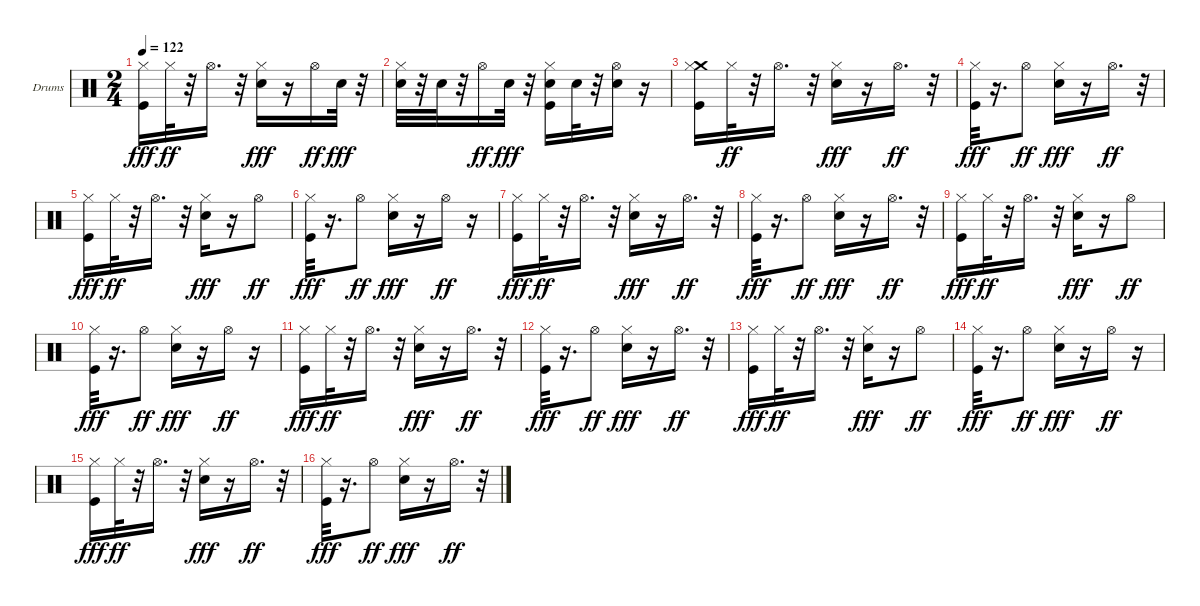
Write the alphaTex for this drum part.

\bracketExtendMode groupsimilarinstruments
\firstSystemTrackNameOrientation horizontal
\otherSystemsTrackNameOrientation horizontal
\track ("Ударные" "Drums") {instrument percussion}
\staff {score}
\articulation defaults
\ts (2 4)
\tempo 122
\clef neutral
\ks c
("Kick (hit)" "Hi-Hat (closed)").16{dy fff} "Hi-Hat (closed)".32{dy ff} r.32 "Hi-Hat (open)".16{d} r.32 ("Snare (hit) 2" "Hi-Hat (closed)").16{dy fff} r.16 "Hi-Hat (open)".16{dy ff} "Snare (hit) 2".32{dy fff} r.32 |
("Snare (hit) 2" "Hi-Hat (closed)").32 r.32 "Snare (hit) 2".32 r.32 "Hi-Hat (open)".16{dy ff} "Snare (hit) 2".32{dy fff} r.32 ("Kick (hit)" "Snare (hit) 2" "Hi-Hat (closed)").16 "Snare (hit) 2".32 r.32 ("Snare (hit) 2" "Hi-Hat (open)").16 r.16 |
("Kick (hit)" "Crash medium (hit)" "Hi-Hat (closed)").16 "Hi-Hat (closed)".32{dy ff} r.32 "Hi-Hat (open)".16{d} r.32 ("Snare (hit) 2" "Hi-Hat (closed)").16{dy fff} r.16 "Hi-Hat (open)".16{d dy ff} r.32 |
("Kick (hit)" "Hi-Hat (closed)").32{dy fff} r.16{d} "Hi-Hat (open)".8{dy ff} ("Snare (hit) 2" "Hi-Hat (closed)").16{dy fff} r.16 "Hi-Hat (open)".16{d dy ff} r.32 |
("Kick (hit)" "Hi-Hat (closed)").16{dy fff} "Hi-Hat (closed)".32{dy ff} r.32 "Hi-Hat (open)".16{d} r.32 ("Snare (hit) 2" "Hi-Hat (closed)").16{dy fff} r.16 "Hi-Hat (open)".8{dy ff} |
("Kick (hit)" "Hi-Hat (closed)").32{dy fff} r.16{d} "Hi-Hat (open)".8{dy ff} ("Snare (hit) 2" "Hi-Hat (closed)").16{dy fff} r.16 "Hi-Hat (open)".16{dy ff} r.16 |
("Kick (hit)" "Hi-Hat (closed)").16{dy fff} "Hi-Hat (closed)".32{dy ff} r.32 "Hi-Hat (open)".16{d} r.32 ("Snare (hit) 2" "Hi-Hat (closed)").16{dy fff} r.16 "Hi-Hat (open)".16{d dy ff} r.32 |
("Kick (hit)" "Hi-Hat (closed)").32{dy fff} r.16{d} "Hi-Hat (open)".8{dy ff} ("Snare (hit) 2" "Hi-Hat (closed)").16{dy fff} r.16 "Hi-Hat (open)".16{d dy ff} r.32 |
("Kick (hit)" "Hi-Hat (closed)").16{dy fff} "Hi-Hat (closed)".32{dy ff} r.32 "Hi-Hat (open)".16{d} r.32 ("Snare (hit) 2" "Hi-Hat (closed)").16{dy fff} r.16 "Hi-Hat (open)".8{dy ff} |
("Kick (hit)" "Hi-Hat (closed)").32{dy fff} r.16{d} "Hi-Hat (open)".8{dy ff} ("Snare (hit) 2" "Hi-Hat (closed)").16{dy fff} r.16 "Hi-Hat (open)".16{dy ff} r.16 |
("Kick (hit)" "Hi-Hat (closed)").16{dy fff} "Hi-Hat (closed)".32{dy ff} r.32 "Hi-Hat (open)".16{d} r.32 ("Snare (hit) 2" "Hi-Hat (closed)").16{dy fff} r.16 "Hi-Hat (open)".16{d dy ff} r.32 |
("Kick (hit)" "Hi-Hat (closed)").32{dy fff} r.16{d} "Hi-Hat (open)".8{dy ff} ("Snare (hit) 2" "Hi-Hat (closed)").16{dy fff} r.16 "Hi-Hat (open)".16{d dy ff} r.32 |
("Kick (hit)" "Hi-Hat (closed)").16{dy fff} "Hi-Hat (closed)".32{dy ff} r.32 "Hi-Hat (open)".16{d} r.32 ("Snare (hit) 2" "Hi-Hat (closed)").16{dy fff} r.16 "Hi-Hat (open)".8{dy ff} |
("Kick (hit)" "Hi-Hat (closed)").32{dy fff} r.16{d} "Hi-Hat (open)".8{dy ff} ("Snare (hit) 2" "Hi-Hat (closed)").16{dy fff} r.16 "Hi-Hat (open)".16{dy ff} r.16 |
("Kick (hit)" "Hi-Hat (closed)").16{dy fff} "Hi-Hat (closed)".32{dy ff} r.32 "Hi-Hat (open)".16{d} r.32 ("Snare (hit) 2" "Hi-Hat (closed)").16{dy fff} r.16 "Hi-Hat (open)".16{d dy ff} r.32 |
("Kick (hit)" "Hi-Hat (closed)").32{dy fff} r.16{d} "Hi-Hat (open)".8{dy ff} ("Snare (hit) 2" "Hi-Hat (closed)").16{dy fff} r.16 "Hi-Hat (open)".16{d dy ff} r.32
